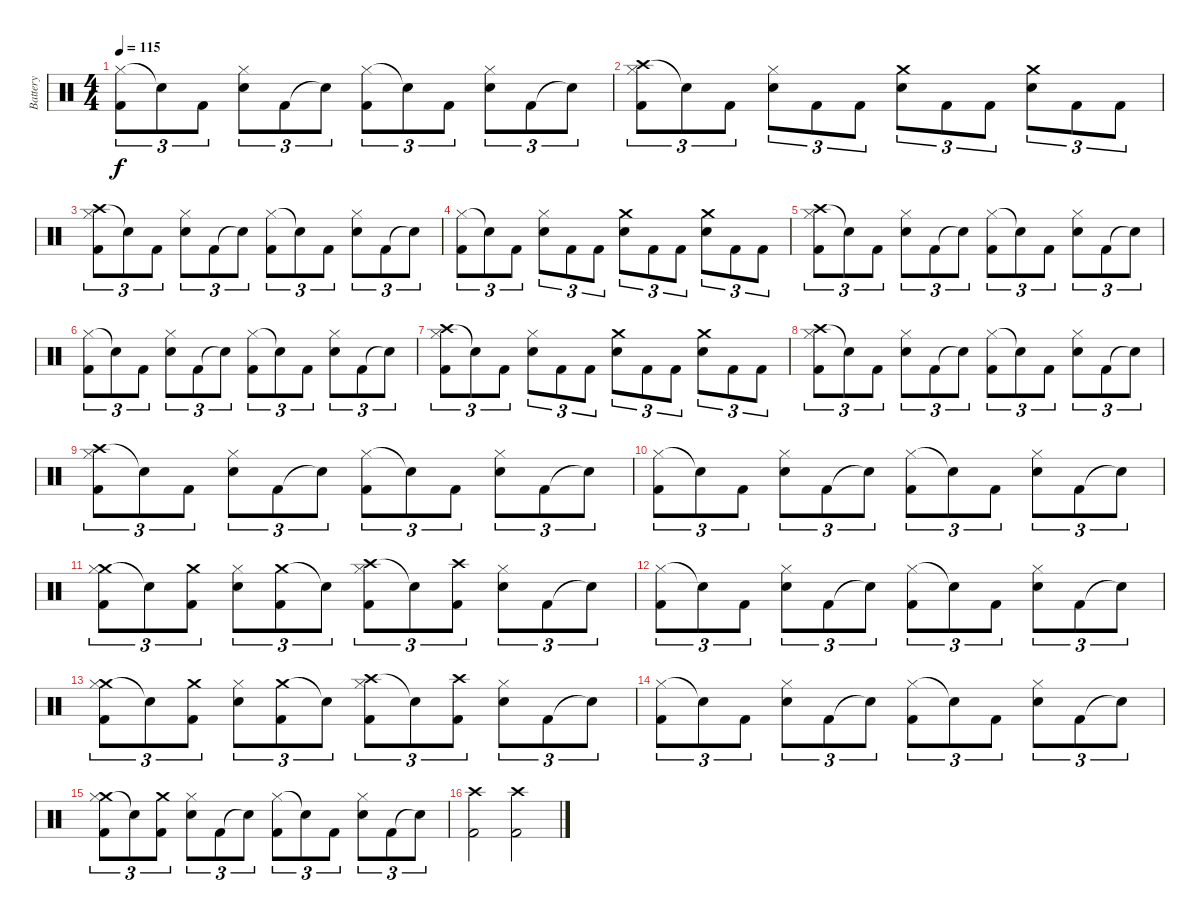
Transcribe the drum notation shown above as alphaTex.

\track ("Battery" "Battery") {instrument percussion}
\staff {score}
\articulation defaults
\ts (4 4)
\tempo 115
\clef neutral
\ks c
("Hi-Hat (closed)" "Kick (hit) 2").8{tu (3 2) dy f} "Snare (hit)"{t}.8{tu (3 2)} "Kick (hit) 2".8{tu (3 2)} ("Hi-Hat (closed)" "Electric Snare (hit)").8{tu (3 2)} "Kick (hit) 2".8{tu (3 2)} "Snare (hit)"{t}.8{tu (3 2)} ("Hi-Hat (closed)" "Kick (hit) 2").8{tu (3 2)} "Snare (hit)"{t}.8{tu (3 2)} "Kick (hit) 2".8{tu (3 2)} ("Hi-Hat (closed)" "Electric Snare (hit)").8{tu (3 2)} "Kick (hit) 2".8{tu (3 2)} "Snare (hit)"{t}.8{tu (3 2)} |
("Crash high (hit)" "Hi-Hat (closed)" "Kick (hit) 2").8{tu (3 2)} "Snare (hit)"{t}.8{tu (3 2)} "Kick (hit) 2".8{tu (3 2)} ("Hi-Hat (closed)" "Electric Snare (hit)").8{tu (3 2)} "Kick (hit) 2".8{tu (3 2)} "Kick (hit) 2".8{tu (3 2)} ("Crash medium (hit)" "Electric Snare (hit)").8{tu (3 2)} "Kick (hit) 2".8{tu (3 2)} "Kick (hit) 2".8{tu (3 2)} ("Crash medium (hit)" "Electric Snare (hit)").8{tu (3 2)} "Kick (hit) 2".8{tu (3 2)} "Kick (hit) 2".8{tu (3 2)} |
("Crash high (hit)" "Hi-Hat (closed)" "Kick (hit) 2").8{tu (3 2)} "Snare (hit)"{t}.8{tu (3 2)} "Kick (hit) 2".8{tu (3 2)} ("Hi-Hat (closed)" "Electric Snare (hit)").8{tu (3 2)} "Kick (hit) 2".8{tu (3 2)} "Snare (hit)"{t}.8{tu (3 2)} ("Hi-Hat (closed)" "Kick (hit) 2").8{tu (3 2)} "Snare (hit)"{t}.8{tu (3 2)} "Kick (hit) 2".8{tu (3 2)} ("Hi-Hat (closed)" "Electric Snare (hit)").8{tu (3 2)} "Kick (hit) 2".8{tu (3 2)} "Snare (hit)"{t}.8{tu (3 2)} |
("Hi-Hat (closed)" "Kick (hit) 2").8{tu (3 2)} "Snare (hit)"{t}.8{tu (3 2)} "Kick (hit) 2".8{tu (3 2)} ("Hi-Hat (closed)" "Electric Snare (hit)").8{tu (3 2)} "Kick (hit) 2".8{tu (3 2)} "Kick (hit) 2".8{tu (3 2)} ("Crash medium (hit)" "Electric Snare (hit)").8{tu (3 2)} "Kick (hit) 2".8{tu (3 2)} "Kick (hit) 2".8{tu (3 2)} ("Crash medium (hit)" "Electric Snare (hit)").8{tu (3 2)} "Kick (hit) 2".8{tu (3 2)} "Kick (hit) 2".8{tu (3 2)} |
("Crash high (hit)" "Hi-Hat (closed)" "Kick (hit) 2").8{tu (3 2)} "Snare (hit)"{t}.8{tu (3 2)} "Kick (hit) 2".8{tu (3 2)} ("Hi-Hat (closed)" "Electric Snare (hit)").8{tu (3 2)} "Kick (hit) 2".8{tu (3 2)} "Snare (hit)"{t}.8{tu (3 2)} ("Hi-Hat (closed)" "Kick (hit) 2").8{tu (3 2)} "Snare (hit)"{t}.8{tu (3 2)} "Kick (hit) 2".8{tu (3 2)} ("Hi-Hat (closed)" "Electric Snare (hit)").8{tu (3 2)} "Kick (hit) 2".8{tu (3 2)} "Snare (hit)"{t}.8{tu (3 2)} |
("Hi-Hat (closed)" "Kick (hit) 2").8{tu (3 2)} "Snare (hit)"{t}.8{tu (3 2)} "Kick (hit) 2".8{tu (3 2)} ("Hi-Hat (closed)" "Electric Snare (hit)").8{tu (3 2)} "Kick (hit) 2".8{tu (3 2)} "Snare (hit)"{t}.8{tu (3 2)} ("Hi-Hat (closed)" "Kick (hit) 2").8{tu (3 2)} "Snare (hit)"{t}.8{tu (3 2)} "Kick (hit) 2".8{tu (3 2)} ("Hi-Hat (closed)" "Electric Snare (hit)").8{tu (3 2)} "Kick (hit) 2".8{tu (3 2)} "Snare (hit)"{t}.8{tu (3 2)} |
("Crash high (hit)" "Hi-Hat (closed)" "Kick (hit) 2").8{tu (3 2)} "Snare (hit)"{t}.8{tu (3 2)} "Kick (hit) 2".8{tu (3 2)} ("Hi-Hat (closed)" "Electric Snare (hit)").8{tu (3 2)} "Kick (hit) 2".8{tu (3 2)} "Kick (hit) 2".8{tu (3 2)} ("Crash medium (hit)" "Electric Snare (hit)").8{tu (3 2)} "Kick (hit) 2".8{tu (3 2)} "Kick (hit) 2".8{tu (3 2)} ("Crash medium (hit)" "Electric Snare (hit)").8{tu (3 2)} "Kick (hit) 2".8{tu (3 2)} "Kick (hit) 2".8{tu (3 2)} |
("Crash high (hit)" "Hi-Hat (closed)" "Kick (hit) 2").8{tu (3 2)} "Snare (hit)"{t}.8{tu (3 2)} "Kick (hit) 2".8{tu (3 2)} ("Hi-Hat (closed)" "Electric Snare (hit)").8{tu (3 2)} "Kick (hit) 2".8{tu (3 2)} "Snare (hit)"{t}.8{tu (3 2)} ("Hi-Hat (closed)" "Kick (hit) 2").8{tu (3 2)} "Snare (hit)"{t}.8{tu (3 2)} "Kick (hit) 2".8{tu (3 2)} ("Hi-Hat (closed)" "Electric Snare (hit)").8{tu (3 2)} "Kick (hit) 2".8{tu (3 2)} "Snare (hit)"{t}.8{tu (3 2)} |
("Crash high (hit)" "Hi-Hat (closed)" "Kick (hit) 2").8{tu (3 2)} "Snare (hit)"{t}.8{tu (3 2)} "Kick (hit) 2".8{tu (3 2)} ("Hi-Hat (closed)" "Electric Snare (hit)").8{tu (3 2)} "Kick (hit) 2".8{tu (3 2)} "Snare (hit)"{t}.8{tu (3 2)} ("Hi-Hat (closed)" "Kick (hit) 2").8{tu (3 2)} "Snare (hit)"{t}.8{tu (3 2)} "Kick (hit) 2".8{tu (3 2)} ("Hi-Hat (closed)" "Electric Snare (hit)").8{tu (3 2)} "Kick (hit) 2".8{tu (3 2)} "Snare (hit)"{t}.8{tu (3 2)} |
("Hi-Hat (closed)" "Kick (hit) 2").8{tu (3 2)} "Snare (hit)"{t}.8{tu (3 2)} "Kick (hit) 2".8{tu (3 2)} ("Hi-Hat (closed)" "Electric Snare (hit)").8{tu (3 2)} "Kick (hit) 2".8{tu (3 2)} "Snare (hit)"{t}.8{tu (3 2)} ("Hi-Hat (closed)" "Kick (hit) 2").8{tu (3 2)} "Snare (hit)"{t}.8{tu (3 2)} "Kick (hit) 2".8{tu (3 2)} ("Hi-Hat (closed)" "Electric Snare (hit)").8{tu (3 2)} "Kick (hit) 2".8{tu (3 2)} "Snare (hit)"{t}.8{tu (3 2)} |
("Crash medium (hit)" "Hi-Hat (closed)" "Kick (hit) 2").8{tu (3 2)} "Snare (hit)"{t}.8{tu (3 2)} ("Crash medium (hit)" "Kick (hit) 2").8{tu (3 2)} ("Hi-Hat (closed)" "Electric Snare (hit)").8{tu (3 2)} ("Crash medium (hit)" "Kick (hit) 2").8{tu (3 2)} "Snare (hit)"{t}.8{tu (3 2)} ("Crash high (hit)" "Hi-Hat (closed)" "Kick (hit) 2").8{tu (3 2)} "Snare (hit)"{t}.8{tu (3 2)} ("Crash high (hit)" "Kick (hit) 2").8{tu (3 2)} ("Hi-Hat (closed)" "Electric Snare (hit)").8{tu (3 2)} "Kick (hit) 2".8{tu (3 2)} "Snare (hit)"{t}.8{tu (3 2)} |
("Hi-Hat (closed)" "Kick (hit) 2").8{tu (3 2)} "Snare (hit)"{t}.8{tu (3 2)} "Kick (hit) 2".8{tu (3 2)} ("Hi-Hat (closed)" "Electric Snare (hit)").8{tu (3 2)} "Kick (hit) 2".8{tu (3 2)} "Snare (hit)"{t}.8{tu (3 2)} ("Hi-Hat (closed)" "Kick (hit) 2").8{tu (3 2)} "Snare (hit)"{t}.8{tu (3 2)} "Kick (hit) 2".8{tu (3 2)} ("Hi-Hat (closed)" "Electric Snare (hit)").8{tu (3 2)} "Kick (hit) 2".8{tu (3 2)} "Snare (hit)"{t}.8{tu (3 2)} |
("Crash medium (hit)" "Hi-Hat (closed)" "Kick (hit) 2").8{tu (3 2)} "Snare (hit)"{t}.8{tu (3 2)} ("Crash medium (hit)" "Kick (hit) 2").8{tu (3 2)} ("Hi-Hat (closed)" "Electric Snare (hit)").8{tu (3 2)} ("Crash medium (hit)" "Kick (hit) 2").8{tu (3 2)} "Snare (hit)"{t}.8{tu (3 2)} ("Crash high (hit)" "Hi-Hat (closed)" "Kick (hit) 2").8{tu (3 2)} "Snare (hit)"{t}.8{tu (3 2)} ("Crash high (hit)" "Kick (hit) 2").8{tu (3 2)} ("Hi-Hat (closed)" "Electric Snare (hit)").8{tu (3 2)} "Kick (hit) 2".8{tu (3 2)} "Snare (hit)"{t}.8{tu (3 2)} |
("Hi-Hat (closed)" "Kick (hit) 2").8{tu (3 2)} "Snare (hit)"{t}.8{tu (3 2)} "Kick (hit) 2".8{tu (3 2)} ("Hi-Hat (closed)" "Electric Snare (hit)").8{tu (3 2)} "Kick (hit) 2".8{tu (3 2)} "Snare (hit)"{t}.8{tu (3 2)} ("Hi-Hat (closed)" "Kick (hit) 2").8{tu (3 2)} "Snare (hit)"{t}.8{tu (3 2)} "Kick (hit) 2".8{tu (3 2)} ("Hi-Hat (closed)" "Electric Snare (hit)").8{tu (3 2)} "Kick (hit) 2".8{tu (3 2)} "Snare (hit)"{t}.8{tu (3 2)} |
("Crash medium (hit)" "Hi-Hat (closed)" "Kick (hit) 2").8{tu (3 2)} "Snare (hit)"{t}.8{tu (3 2)} ("Crash medium (hit)" "Kick (hit) 2").8{tu (3 2)} ("Hi-Hat (closed)" "Electric Snare (hit)").8{tu (3 2)} "Kick (hit) 2".8{tu (3 2)} "Snare (hit)"{t}.8{tu (3 2)} ("Hi-Hat (closed)" "Kick (hit) 2").8{tu (3 2)} "Snare (hit)"{t}.8{tu (3 2)} "Kick (hit) 2".8{tu (3 2)} ("Hi-Hat (closed)" "Electric Snare (hit)").8{tu (3 2)} "Kick (hit) 2".8{tu (3 2)} "Snare (hit)"{t}.8{tu (3 2)} |
("Crash high (hit)" "Kick (hit) 2").2 ("Crash high (hit)" "Kick (hit) 2").2
